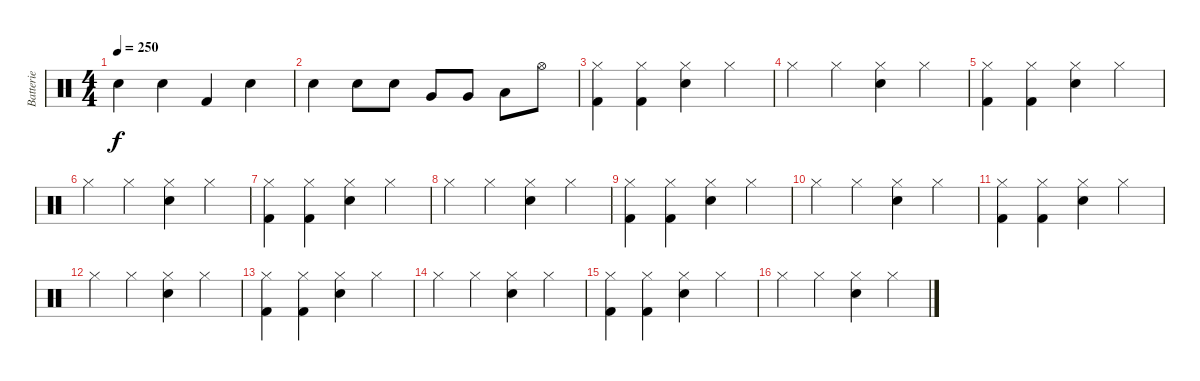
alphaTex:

\track ("Batterie" "Batterie") {instrument percussion}
\staff {score}
\articulation defaults
\ts (4 4)
\tempo 250
\clef neutral
\ks c "Electric Snare (hit)".4{dy f} "Electric Snare (hit)".4 "Kick (hit) 2".4 "Electric Snare (hit)".4
|
"Electric Snare (hit)".4 "Electric Snare (hit)".8 "Electric Snare (hit)".8 "Very Low Tom (hit)".8 "Very Low Tom (hit)".8 "Low Floor Tom (hit)".8 "Hi-Hat (open)".8 |
("Hi-Hat (closed)" "Kick (hit) 2").4 ("Hi-Hat (closed)" "Kick (hit) 2").4 ("Hi-Hat (closed)" "Electric Snare (hit)").4 "Hi-Hat (closed)".4 |
"Hi-Hat (closed)".4 "Hi-Hat (closed)".4 ("Hi-Hat (closed)" "Electric Snare (hit)").4 "Hi-Hat (closed)".4 |
("Hi-Hat (closed)" "Kick (hit) 2").4 ("Hi-Hat (closed)" "Kick (hit) 2").4 ("Hi-Hat (closed)" "Electric Snare (hit)").4 "Hi-Hat (closed)".4 |
"Hi-Hat (closed)".4 "Hi-Hat (closed)".4 ("Hi-Hat (closed)" "Electric Snare (hit)").4 "Hi-Hat (closed)".4 |
("Hi-Hat (closed)" "Kick (hit) 2").4 ("Hi-Hat (closed)" "Kick (hit) 2").4 ("Hi-Hat (closed)" "Electric Snare (hit)").4 "Hi-Hat (closed)".4 |
"Hi-Hat (closed)".4 "Hi-Hat (closed)".4 ("Hi-Hat (closed)" "Electric Snare (hit)").4 "Hi-Hat (closed)".4 |
("Hi-Hat (closed)" "Kick (hit) 2").4 ("Hi-Hat (closed)" "Kick (hit) 2").4 ("Hi-Hat (closed)" "Electric Snare (hit)").4 "Hi-Hat (closed)".4 |
"Hi-Hat (closed)".4 "Hi-Hat (closed)".4 ("Hi-Hat (closed)" "Electric Snare (hit)").4 "Hi-Hat (closed)".4 |
("Hi-Hat (closed)" "Kick (hit) 2").4 ("Hi-Hat (closed)" "Kick (hit) 2").4 ("Hi-Hat (closed)" "Electric Snare (hit)").4 "Hi-Hat (closed)".4 |
"Hi-Hat (closed)".4 "Hi-Hat (closed)".4 ("Hi-Hat (closed)" "Electric Snare (hit)").4 "Hi-Hat (closed)".4 |
("Hi-Hat (closed)" "Kick (hit) 2").4 ("Hi-Hat (closed)" "Kick (hit) 2").4 ("Hi-Hat (closed)" "Electric Snare (hit)").4 "Hi-Hat (closed)".4 |
"Hi-Hat (closed)".4 "Hi-Hat (closed)".4 ("Hi-Hat (closed)" "Electric Snare (hit)").4 "Hi-Hat (closed)".4 |
("Hi-Hat (closed)" "Kick (hit) 2").4 ("Hi-Hat (closed)" "Kick (hit) 2").4 ("Hi-Hat (closed)" "Electric Snare (hit)").4 "Hi-Hat (closed)".4 |
"Hi-Hat (closed)".4 "Hi-Hat (closed)".4 ("Hi-Hat (closed)" "Electric Snare (hit)").4 "Hi-Hat (closed)".4
